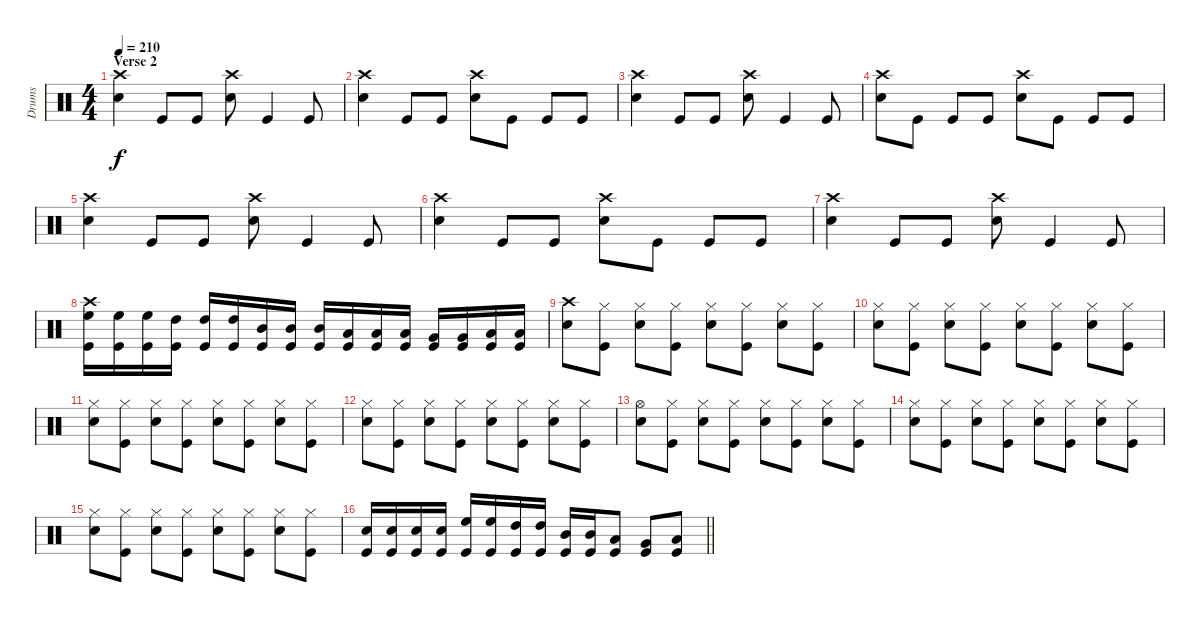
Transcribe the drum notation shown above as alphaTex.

\track ("Drums" "Drums") {instrument percussion}
\staff {score}
\articulation defaults
\ts (4 4)
\section ("" "Verse 2")
\tempo 210
\clef neutral
\ks c
("Crash high (hit)" "Snare (hit) 2").4{dy f} "Kick (hit)".8 "Kick (hit)".8 ("Crash high (hit)" "Snare (hit) 2").8 "Kick (hit)".4 "Kick (hit)".8 |
("Crash high (hit)" "Snare (hit) 2").4 "Kick (hit)".8 "Kick (hit)".8 ("Crash high (hit)" "Snare (hit) 2").8 "Kick (hit)".8 "Kick (hit)".8 "Kick (hit)".8 |
("Crash high (hit)" "Snare (hit) 2").4 "Kick (hit)".8 "Kick (hit)".8 ("Crash high (hit)" "Snare (hit) 2").8 "Kick (hit)".4 "Kick (hit)".8 |
("Crash high (hit)" "Snare (hit) 2").8 "Kick (hit)".8 "Kick (hit)".8 "Kick (hit)".8 ("Crash high (hit)" "Snare (hit) 2").8 "Kick (hit)".8 "Kick (hit)".8 "Kick (hit)".8 |
("Crash high (hit)" "Snare (hit) 2").4 "Kick (hit)".8 "Kick (hit)".8 ("Crash high (hit)" "Snare (hit) 2").8 "Kick (hit)".4 "Kick (hit)".8 |
("Crash high (hit)" "Snare (hit) 2").4 "Kick (hit)".8 "Kick (hit)".8 ("Crash high (hit)" "Snare (hit) 2").8 "Kick (hit)".8 "Kick (hit)".8 "Kick (hit)".8 |
("Crash high (hit)" "Snare (hit) 2").4 "Kick (hit)".8 "Kick (hit)".8 ("Crash high (hit)" "Snare (hit) 2").8 "Kick (hit)".4 "Kick (hit)".8 |
("Crash high (hit)" "High Floor Tom (hit)" "Kick (hit)").16 ("High Floor Tom (hit)" "Kick (hit)").16 ("High Floor Tom (hit)" "Kick (hit)").16 ("High Tom (hit)" "Kick (hit)").16 ("High Tom (hit)" "Kick (hit)").16 ("High Tom (hit)" "Kick (hit)").16 ("Mid Tom (hit)" "Kick (hit)").16 ("Mid Tom (hit)" "Kick (hit)").16 ("Mid Tom (hit)" "Kick (hit)").16 ("Low Tom (hit)" "Kick (hit)").16 ("Low Tom (hit)" "Kick (hit)").16 ("Low Tom (hit)" "Kick (hit)").16 ("Very Low Tom (hit)" "Kick (hit)").16 ("Very Low Tom (hit)" "Kick (hit)").16 ("Low Floor Tom (hit)" "Kick (hit)").16 ("Low Floor Tom (hit)" "Kick (hit)").16 |
("Crash high (hit)" "Snare (hit) 2").8 ("Hi-Hat (closed)" "Kick (hit)").8 ("Hi-Hat (closed)" "Snare (hit) 2").8 ("Hi-Hat (closed)" "Kick (hit)").8 ("Hi-Hat (closed)" "Snare (hit) 2").8 ("Hi-Hat (closed)" "Kick (hit)").8 ("Hi-Hat (closed)" "Snare (hit) 2").8 ("Hi-Hat (closed)" "Kick (hit)").8 |
("Hi-Hat (closed)" "Snare (hit) 2").8 ("Hi-Hat (closed)" "Kick (hit)").8 ("Hi-Hat (closed)" "Snare (hit) 2").8 ("Hi-Hat (closed)" "Kick (hit)").8 ("Hi-Hat (closed)" "Snare (hit) 2").8 ("Hi-Hat (closed)" "Kick (hit)").8 ("Hi-Hat (closed)" "Snare (hit) 2").8 ("Hi-Hat (closed)" "Kick (hit)").8 |
("Hi-Hat (closed)" "Snare (hit) 2").8 ("Hi-Hat (closed)" "Kick (hit)").8 ("Hi-Hat (closed)" "Snare (hit) 2").8 ("Hi-Hat (closed)" "Kick (hit)").8 ("Hi-Hat (closed)" "Snare (hit) 2").8 ("Hi-Hat (closed)" "Kick (hit)").8 ("Hi-Hat (closed)" "Snare (hit) 2").8 ("Hi-Hat (closed)" "Kick (hit)").8 |
("Hi-Hat (closed)" "Snare (hit) 2").8 ("Hi-Hat (closed)" "Kick (hit)").8 ("Hi-Hat (closed)" "Snare (hit) 2").8 ("Hi-Hat (closed)" "Kick (hit)").8 ("Hi-Hat (closed)" "Snare (hit) 2").8 ("Hi-Hat (closed)" "Kick (hit)").8 ("Hi-Hat (closed)" "Snare (hit) 2").8 ("Hi-Hat (closed)" "Kick (hit)").8 |
("Hi-Hat (open)" "Snare (hit) 2").8 ("Hi-Hat (closed)" "Kick (hit)").8 ("Hi-Hat (closed)" "Snare (hit) 2").8 ("Hi-Hat (closed)" "Kick (hit)").8 ("Hi-Hat (closed)" "Snare (hit) 2").8 ("Hi-Hat (closed)" "Kick (hit)").8 ("Hi-Hat (closed)" "Snare (hit) 2").8 ("Hi-Hat (closed)" "Kick (hit)").8 |
("Hi-Hat (closed)" "Snare (hit) 2").8 ("Hi-Hat (closed)" "Kick (hit)").8 ("Hi-Hat (closed)" "Snare (hit) 2").8 ("Hi-Hat (closed)" "Kick (hit)").8 ("Hi-Hat (closed)" "Snare (hit) 2").8 ("Hi-Hat (closed)" "Kick (hit)").8 ("Hi-Hat (closed)" "Snare (hit) 2").8 ("Hi-Hat (closed)" "Kick (hit)").8 |
("Hi-Hat (closed)" "Snare (hit) 2").8 ("Hi-Hat (closed)" "Kick (hit)").8 ("Hi-Hat (closed)" "Snare (hit) 2").8 ("Hi-Hat (closed)" "Kick (hit)").8 ("Hi-Hat (closed)" "Snare (hit) 2").8 ("Hi-Hat (closed)" "Kick (hit)").8 ("Hi-Hat (closed)" "Snare (hit) 2").8 ("Hi-Hat (closed)" "Kick (hit)").8 |
\barLineRight lightlight
("Snare (hit) 2" "Kick (hit)").16 ("Snare (hit) 2" "Kick (hit)").16 ("Snare (hit) 2" "Kick (hit)").16 ("Snare (hit) 2" "Kick (hit)").16 ("High Floor Tom (hit)" "Kick (hit)").16 ("High Floor Tom (hit)" "Kick (hit)").16 ("High Tom (hit)" "Kick (hit)").16 ("High Tom (hit)" "Kick (hit)").16 ("Mid Tom (hit)" "Kick (hit)").16 ("Mid Tom (hit)" "Kick (hit)").16 ("Low Tom (hit)" "Kick (hit)").8 ("Very Low Tom (hit)" "Kick (hit)").8 ("Low Floor Tom (hit)" "Kick (hit)").8
